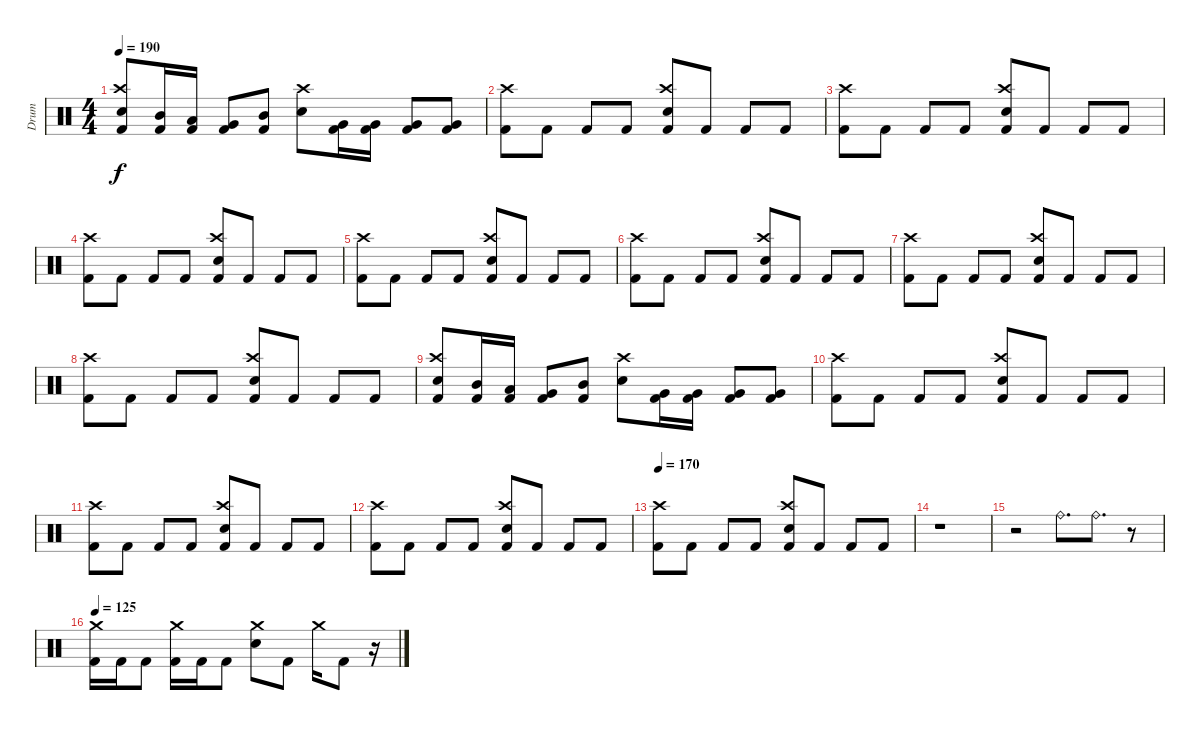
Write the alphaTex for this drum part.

\track ("Drum" "Drum") {instrument percussion}
\staff {score}
\articulation defaults
\ts (4 4)
\tempo 190
\clef neutral
\ks c
("Electric Snare (hit)" "Crash high (hit)" "Kick (hit) 2").8{dy f} ("Mid Tom (hit)" "Kick (hit) 2").16 ("Low Tom (hit)" "Kick (hit) 2").16 ("Very Low Tom (hit)" "Kick (hit) 2").8 ("Mid Tom (hit)" "Kick (hit) 2").8 ("Electric Snare (hit)" "Crash high (hit)").8 ("Very Low Tom (hit)" "Kick (hit) 2").16 ("Very Low Tom (hit)" "Kick (hit) 2").16 ("Very Low Tom (hit)" "Kick (hit) 2").8 ("Very Low Tom (hit)" "Kick (hit) 2").8 |
("Kick (hit) 2" "Crash high (hit)").8 "Kick (hit) 2".8 "Kick (hit) 2".8 "Kick (hit) 2".8 ("Kick (hit) 2" "Electric Snare (hit)" "Crash high (hit)").8 "Kick (hit) 2".8 "Kick (hit) 2".8 "Kick (hit) 2".8 |
("Kick (hit) 2" "Crash high (hit)").8 "Kick (hit) 2".8 "Kick (hit) 2".8 "Kick (hit) 2".8 ("Kick (hit) 2" "Electric Snare (hit)" "Crash high (hit)").8 "Kick (hit) 2".8 "Kick (hit) 2".8 "Kick (hit) 2".8 |
("Kick (hit) 2" "Crash high (hit)").8 "Kick (hit) 2".8 "Kick (hit) 2".8 "Kick (hit) 2".8 ("Kick (hit) 2" "Electric Snare (hit)" "Crash high (hit)").8 "Kick (hit) 2".8 "Kick (hit) 2".8 "Kick (hit) 2".8 |
("Kick (hit) 2" "Crash high (hit)").8 "Kick (hit) 2".8 "Kick (hit) 2".8 "Kick (hit) 2".8 ("Kick (hit) 2" "Electric Snare (hit)" "Crash high (hit)").8 "Kick (hit) 2".8 "Kick (hit) 2".8 "Kick (hit) 2".8 |
("Kick (hit) 2" "Crash high (hit)").8 "Kick (hit) 2".8 "Kick (hit) 2".8 "Kick (hit) 2".8 ("Kick (hit) 2" "Electric Snare (hit)" "Crash high (hit)").8 "Kick (hit) 2".8 "Kick (hit) 2".8 "Kick (hit) 2".8 |
("Kick (hit) 2" "Crash high (hit)").8 "Kick (hit) 2".8 "Kick (hit) 2".8 "Kick (hit) 2".8 ("Kick (hit) 2" "Electric Snare (hit)" "Crash high (hit)").8 "Kick (hit) 2".8 "Kick (hit) 2".8 "Kick (hit) 2".8 |
("Kick (hit) 2" "Crash high (hit)").8 "Kick (hit) 2".8 "Kick (hit) 2".8 "Kick (hit) 2".8 ("Kick (hit) 2" "Electric Snare (hit)" "Crash high (hit)").8 "Kick (hit) 2".8 "Kick (hit) 2".8 "Kick (hit) 2".8 |
("Electric Snare (hit)" "Crash high (hit)" "Kick (hit) 2").8 ("Mid Tom (hit)" "Kick (hit) 2").16 ("Low Tom (hit)" "Kick (hit) 2").16 ("Very Low Tom (hit)" "Kick (hit) 2").8 ("Mid Tom (hit)" "Kick (hit) 2").8 ("Electric Snare (hit)" "Crash high (hit)").8 ("Very Low Tom (hit)" "Kick (hit) 2").16 ("Very Low Tom (hit)" "Kick (hit) 2").16 ("Very Low Tom (hit)" "Kick (hit) 2").8 ("Very Low Tom (hit)" "Kick (hit) 2").8 |
("Kick (hit) 2" "Crash high (hit)").8 "Kick (hit) 2".8 "Kick (hit) 2".8 "Kick (hit) 2".8 ("Kick (hit) 2" "Electric Snare (hit)" "Crash high (hit)").8 "Kick (hit) 2".8 "Kick (hit) 2".8 "Kick (hit) 2".8 |
("Kick (hit) 2" "Crash high (hit)").8 "Kick (hit) 2".8 "Kick (hit) 2".8 "Kick (hit) 2".8 ("Kick (hit) 2" "Electric Snare (hit)" "Crash high (hit)").8 "Kick (hit) 2".8 "Kick (hit) 2".8 "Kick (hit) 2".8 |
("Kick (hit) 2" "Crash high (hit)").8 "Kick (hit) 2".8 "Kick (hit) 2".8 "Kick (hit) 2".8 ("Kick (hit) 2" "Electric Snare (hit)" "Crash high (hit)").8 "Kick (hit) 2".8 "Kick (hit) 2".8 "Kick (hit) 2".8 |
\tempo 170
("Kick (hit) 2" "Crash high (hit)").8 "Kick (hit) 2".8 "Kick (hit) 2".8 "Kick (hit) 2".8 ("Kick (hit) 2" "Electric Snare (hit)" "Crash high (hit)").8 "Kick (hit) 2".8 "Kick (hit) 2".8 "Kick (hit) 2".8 |
r.1 |
r.2 "Ride (bell)".8{d} "Ride (bell)".8{d} r.8 |
\tempo 125
("Kick (hit) 2" "Crash medium (hit)").16 "Kick (hit) 2".16 "Kick (hit) 2".8 ("Kick (hit) 2" "Crash medium (hit)").16 "Kick (hit) 2".16 "Kick (hit) 2".8 ("Electric Snare (hit)" "Crash medium (hit)").8 "Kick (hit) 2".8 "Crash medium (hit)".16 "Kick (hit) 2".8 r.16
